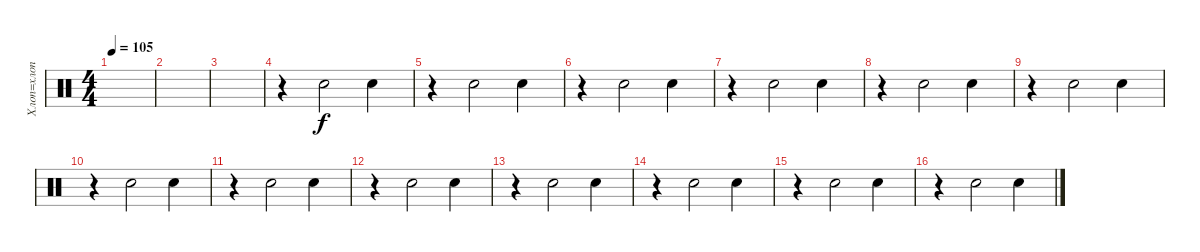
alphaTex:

\track ("Хлоп=хлоп" "Хлоп=хлоп") {instrument percussion}
\staff {score}
\articulation defaults
\ts (4 4)
\tempo 105
\clef neutral
\ks c
|
|
|
r.4 "Hand Clap (hit)".2 "Hand Clap (hit)".4 |
r.4 "Hand Clap (hit)".2 "Hand Clap (hit)".4 |
r.4 "Hand Clap (hit)".2 "Hand Clap (hit)".4 |
r.4 "Hand Clap (hit)".2 "Hand Clap (hit)".4 |
r.4 "Hand Clap (hit)".2 "Hand Clap (hit)".4 |
r.4 "Hand Clap (hit)".2 "Hand Clap (hit)".4 |
r.4 "Hand Clap (hit)".2 "Hand Clap (hit)".4 |
r.4 "Hand Clap (hit)".2 "Hand Clap (hit)".4 |
r.4 "Hand Clap (hit)".2 "Hand Clap (hit)".4 |
r.4 "Hand Clap (hit)".2 "Hand Clap (hit)".4 |
r.4 "Hand Clap (hit)".2 "Hand Clap (hit)".4 |
r.4 "Hand Clap (hit)".2 "Hand Clap (hit)".4 |
r.4 "Hand Clap (hit)".2 "Hand Clap (hit)".4
